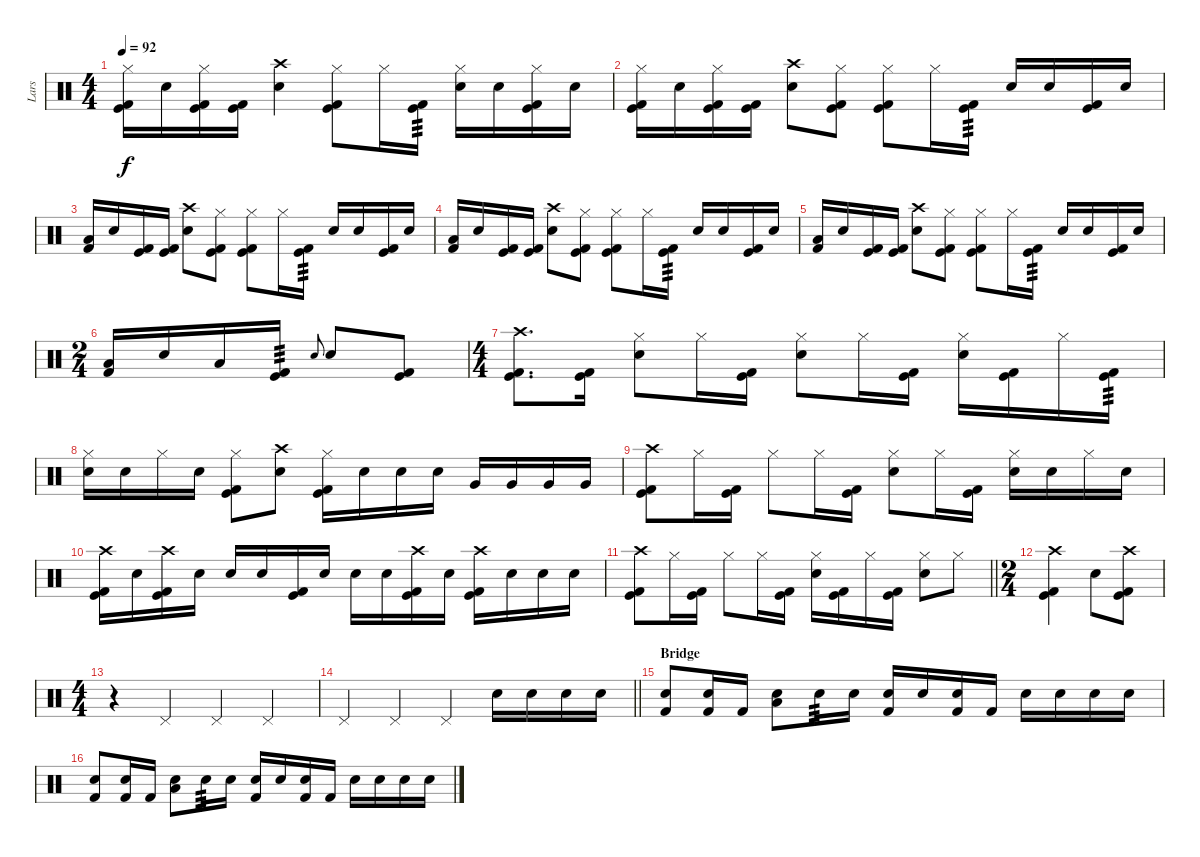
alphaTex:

\track ("Lars" "Lars") {instrument percussion}
\staff {score}
\articulation defaults
\ts (4 4)
\tempo 92
\clef neutral
\ks c
("Hi-Hat (closed)" "Kick (hit)" "Kick (hit) 2").16{dy f} "Electric Snare (hit)".16 ("Hi-Hat (closed)" "Kick (hit)" "Kick (hit) 2").16 ("Kick (hit)" "Kick (hit) 2").16 ("Crash high (hit)" "Electric Snare (hit)").4 ("Hi-Hat (closed)" "Kick (hit)" "Kick (hit) 2").8 "Hi-Hat (closed)".16 ("Kick (hit)" "Kick (hit) 2").16{tp 3} ("Hi-Hat (closed)" "Electric Snare (hit)").16 "Electric Snare (hit)".16 ("Hi-Hat (closed)" "Kick (hit)" "Kick (hit) 2").16 "Electric Snare (hit)".16 |
("Hi-Hat (closed)" "Kick (hit)" "Kick (hit) 2").16 "Electric Snare (hit)".16 ("Hi-Hat (closed)" "Kick (hit)" "Kick (hit) 2").16 ("Kick (hit)" "Kick (hit) 2").16 ("Crash high (hit)" "Electric Snare (hit)").8 ("Hi-Hat (closed)" "Kick (hit)" "Kick (hit) 2").8 ("Hi-Hat (closed)" "Kick (hit)" "Kick (hit) 2").8 "Hi-Hat (closed)".16 ("Kick (hit)" "Kick (hit) 2").16{tp 3} "Electric Snare (hit)".16 "Electric Snare (hit)".16 ("Kick (hit)" "Kick (hit) 2").16 "Electric Snare (hit)".16 |
("Kick (hit) 2" "Low Floor Tom (hit)").16 "Electric Snare (hit)".16 ("Kick (hit)" "Kick (hit) 2").16 ("Kick (hit)" "Kick (hit) 2").16 ("Crash high (hit)" "Electric Snare (hit)").8 ("Hi-Hat (closed)" "Kick (hit)" "Kick (hit) 2").8 ("Hi-Hat (closed)" "Kick (hit)" "Kick (hit) 2").8 "Hi-Hat (closed)".16 ("Kick (hit)" "Kick (hit) 2").16{tp 3} "Electric Snare (hit)".16 "Electric Snare (hit)".16 ("Kick (hit)" "Kick (hit) 2").16 "Electric Snare (hit)".16 |
("Kick (hit) 2" "Low Floor Tom (hit)").16 "Electric Snare (hit)".16 ("Kick (hit)" "Kick (hit) 2").16 ("Kick (hit)" "Kick (hit) 2").16 ("Crash high (hit)" "Electric Snare (hit)").8 ("Hi-Hat (closed)" "Kick (hit)" "Kick (hit) 2").8 ("Hi-Hat (closed)" "Kick (hit)" "Kick (hit) 2").8 "Hi-Hat (closed)".16 ("Kick (hit)" "Kick (hit) 2").16{tp 3} "Electric Snare (hit)".16 "Electric Snare (hit)".16 ("Kick (hit)" "Kick (hit) 2").16 "Electric Snare (hit)".16 |
("Kick (hit) 2" "Low Floor Tom (hit)").16 "Electric Snare (hit)".16 ("Kick (hit)" "Kick (hit) 2").16 ("Kick (hit)" "Kick (hit) 2").16 ("Crash high (hit)" "Electric Snare (hit)").8 ("Hi-Hat (closed)" "Kick (hit)" "Kick (hit) 2").8 ("Hi-Hat (closed)" "Kick (hit)" "Kick (hit) 2").8 "Hi-Hat (closed)".16 ("Kick (hit)" "Kick (hit) 2").16{tp 3} "Electric Snare (hit)".16 "Electric Snare (hit)".16 ("Kick (hit)" "Kick (hit) 2").16 "Electric Snare (hit)".16 |
\ts (2 4)
("Kick (hit) 2" "Low Floor Tom (hit)").16 "Electric Snare (hit)".16 "Low Floor Tom (hit)".16 ("Kick (hit)" "Kick (hit) 2").16{tp 3} "Electric Snare (hit)".8{gr onbeat} "Electric Snare (hit)".8 ("Kick (hit)" "Kick (hit) 2").8 |
\ts (4 4)
("Crash high (hit)" "Kick (hit)" "Kick (hit) 2").8{d} ("Kick (hit)" "Kick (hit) 2").16 ("Hi-Hat (closed)" "Electric Snare (hit)").8 "Hi-Hat (closed)".16 ("Kick (hit)" "Kick (hit) 2").16 ("Hi-Hat (closed)" "Electric Snare (hit)").8 "Hi-Hat (closed)".16 ("Kick (hit)" "Kick (hit) 2").16 ("Hi-Hat (closed)" "Electric Snare (hit)").16 ("Kick (hit)" "Kick (hit) 2").16 "Hi-Hat (closed)".16 ("Kick (hit)" "Kick (hit) 2").16{tp 3} |
("Hi-Hat (closed)" "Electric Snare (hit)").16 "Electric Snare (hit)".16 "Hi-Hat (closed)".16 "Electric Snare (hit)".16 ("Hi-Hat (closed)" "Kick (hit)" "Kick (hit) 2").8 ("Crash high (hit)" "Electric Snare (hit)").8 ("Hi-Hat (closed)" "Kick (hit)" "Kick (hit) 2").16 "Electric Snare (hit)".16 "Electric Snare (hit)".16 "Electric Snare (hit)".16 "Very Low Tom (hit)".16 "Very Low Tom (hit)".16 "Very Low Tom (hit)".16 "Very Low Tom (hit)".16 |
("Crash high (hit)" "Kick (hit)" "Kick (hit) 2").8 "Hi-Hat (closed)".16 ("Kick (hit)" "Kick (hit) 2").16 "Hi-Hat (closed)".8 "Hi-Hat (closed)".16 ("Kick (hit)" "Kick (hit) 2").16 ("Hi-Hat (closed)" "Electric Snare (hit)").8 "Hi-Hat (closed)".16 ("Kick (hit)" "Kick (hit) 2").16 ("Hi-Hat (closed)" "Electric Snare (hit)").16 "Electric Snare (hit)".16 "Hi-Hat (closed)".16 "Electric Snare (hit)".16 |
("Crash high (hit)" "Kick (hit)" "Kick (hit) 2").16 "Electric Snare (hit)".16 ("Crash high (hit)" "Kick (hit)" "Kick (hit) 2").16 "Electric Snare (hit)".16 "Electric Snare (hit)".16 "Electric Snare (hit)".16 ("Kick (hit)" "Kick (hit) 2").16 "Electric Snare (hit)".16 "Electric Snare (hit)".16 "Electric Snare (hit)".16 ("Crash high (hit)" "Kick (hit)" "Kick (hit) 2").16 "Electric Snare (hit)".16 ("Crash high (hit)" "Kick (hit)" "Kick (hit) 2").16 "Electric Snare (hit)".16 "Electric Snare (hit)".16 "Electric Snare (hit)".16 |
\barLineRight lightlight
("Crash high (hit)" "Kick (hit)" "Kick (hit) 2").8 "Hi-Hat (closed)".16 ("Kick (hit)" "Kick (hit) 2").16 "Hi-Hat (closed)".8 "Hi-Hat (closed)".16 ("Kick (hit)" "Kick (hit) 2").16 ("Hi-Hat (closed)" "Electric Snare (hit)").16 ("Kick (hit)" "Kick (hit) 2").16 "Hi-Hat (closed)".16 ("Kick (hit)" "Kick (hit) 2").16 ("Hi-Hat (closed)" "Electric Snare (hit)").8 "Hi-Hat (closed)".8 |
\ts (2 4)
\section ("" "")
("Crash high (hit)" "Kick (hit)" "Kick (hit) 2").4 "Electric Snare (hit)".8 ("Crash high (hit)" "Kick (hit)" "Kick (hit) 2").8 |
\ts (4 4)
r.4 "Pedal Hi-Hat (hit)".4 "Pedal Hi-Hat (hit)".4 "Pedal Hi-Hat (hit)".4 |
\barLineRight lightlight "Pedal Hi-Hat (hit)".4 "Pedal Hi-Hat (hit)".4 "Pedal Hi-Hat (hit)".4 "Electric Snare (hit)".16 "Electric Snare (hit)".16 "Electric Snare (hit)".16 "Electric Snare (hit)".16
|
\section ("" "Bridge")
("Electric Snare (hit)" "Kick (hit) 2").8 ("Electric Snare (hit)" "Kick (hit) 2").16 "Kick (hit) 2".16 ("Electric Snare (hit)" "Low Tom (hit)").8 "Electric Snare (hit)".16{tp 3} "Electric Snare (hit)".16 ("Electric Snare (hit)" "Kick (hit) 2").16 "Electric Snare (hit)".16 ("Electric Snare (hit)" "Kick (hit) 2").16 "Kick (hit) 2".16 "Electric Snare (hit)".16 "Electric Snare (hit)".16 "Electric Snare (hit)".16 "Electric Snare (hit)".16 |
("Electric Snare (hit)" "Kick (hit) 2").8 ("Electric Snare (hit)" "Kick (hit) 2").16 "Kick (hit) 2".16 ("Electric Snare (hit)" "Low Tom (hit)").8 "Electric Snare (hit)".16{tp 3} "Electric Snare (hit)".16 ("Electric Snare (hit)" "Kick (hit) 2").16 "Electric Snare (hit)".16 ("Electric Snare (hit)" "Kick (hit) 2").16 "Kick (hit) 2".16 "Electric Snare (hit)".16 "Electric Snare (hit)".16 "Electric Snare (hit)".16 "Electric Snare (hit)".16
